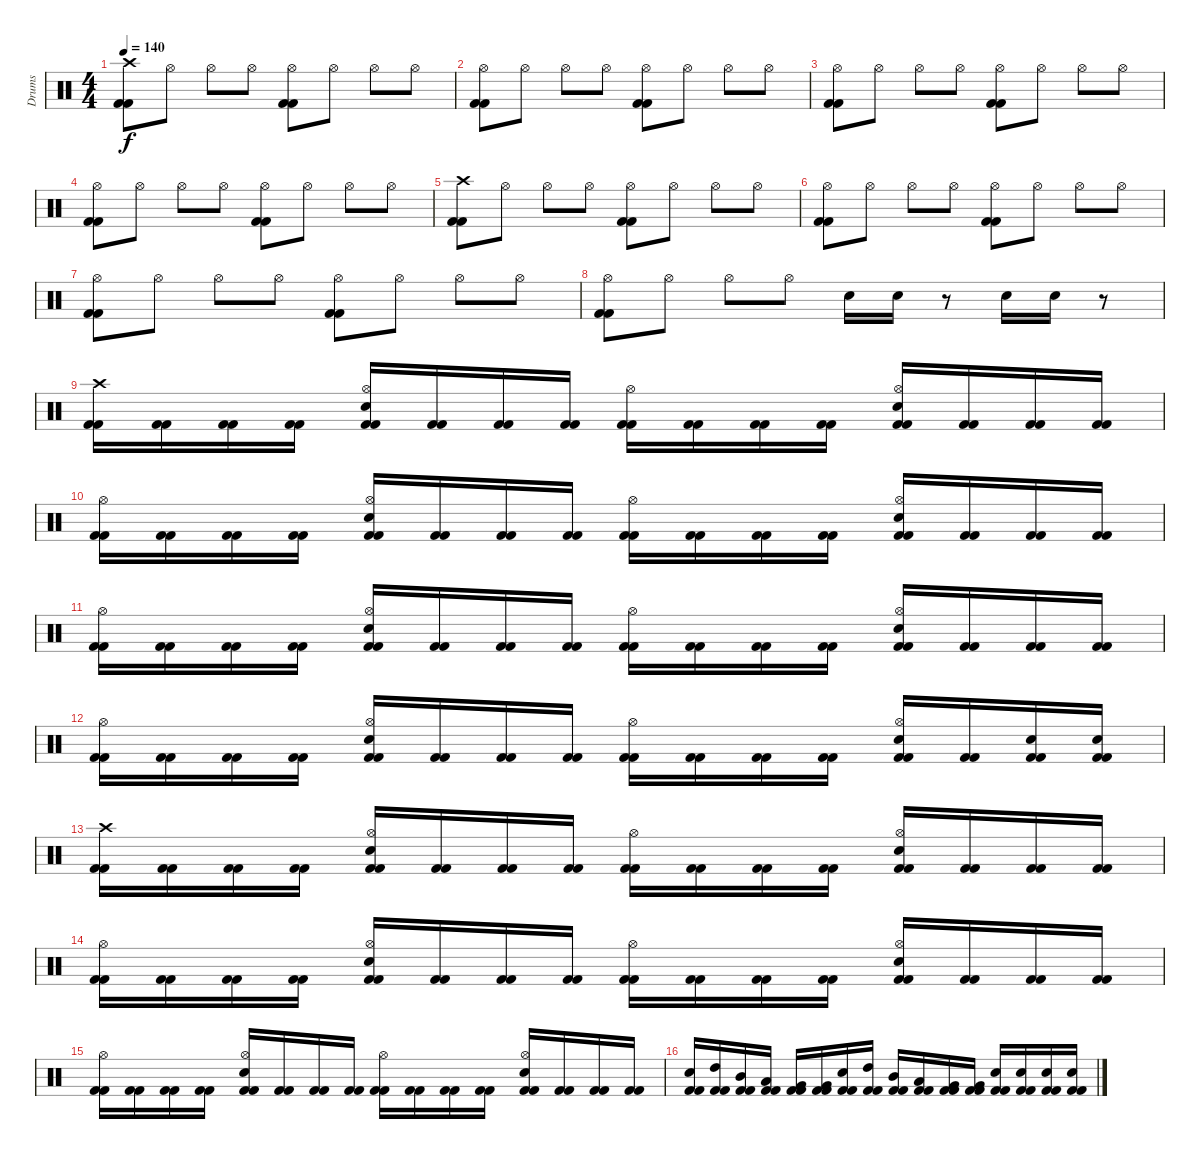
\track ("Drums" "Drums") {instrument percussion}
\staff {score}
\articulation defaults
\ts (4 4)
\tempo 140
\clef neutral
\ks c
("Crash high (hit)" "Kick (hit) 2" "Kick (hit) 2").8{dy f} "Hi-Hat (open)".8 "Hi-Hat (open)".8 "Hi-Hat (open)".8 ("Hi-Hat (open)" "Kick (hit) 2" "Kick (hit) 2").8 "Hi-Hat (open)".8 "Hi-Hat (open)".8 "Hi-Hat (open)".8 |
("Hi-Hat (open)" "Kick (hit) 2" "Kick (hit) 2").8 "Hi-Hat (open)".8 "Hi-Hat (open)".8 "Hi-Hat (open)".8 ("Hi-Hat (open)" "Kick (hit) 2" "Kick (hit) 2").8 "Hi-Hat (open)".8 "Hi-Hat (open)".8 "Hi-Hat (open)".8 |
("Hi-Hat (open)" "Kick (hit) 2" "Kick (hit) 2").8 "Hi-Hat (open)".8 "Hi-Hat (open)".8 "Hi-Hat (open)".8 ("Hi-Hat (open)" "Kick (hit) 2" "Kick (hit) 2").8 "Hi-Hat (open)".8 "Hi-Hat (open)".8 "Hi-Hat (open)".8 |
("Hi-Hat (open)" "Kick (hit) 2" "Kick (hit) 2").8 "Hi-Hat (open)".8 "Hi-Hat (open)".8 "Hi-Hat (open)".8 ("Hi-Hat (open)" "Kick (hit) 2" "Kick (hit) 2").8 "Hi-Hat (open)".8 "Hi-Hat (open)".8 "Hi-Hat (open)".8 |
("Crash high (hit)" "Kick (hit) 2" "Kick (hit) 2").8 "Hi-Hat (open)".8 "Hi-Hat (open)".8 "Hi-Hat (open)".8 ("Hi-Hat (open)" "Kick (hit) 2" "Kick (hit) 2").8 "Hi-Hat (open)".8 "Hi-Hat (open)".8 "Hi-Hat (open)".8 |
("Hi-Hat (open)" "Kick (hit) 2" "Kick (hit) 2").8 "Hi-Hat (open)".8 "Hi-Hat (open)".8 "Hi-Hat (open)".8 ("Hi-Hat (open)" "Kick (hit) 2" "Kick (hit) 2").8 "Hi-Hat (open)".8 "Hi-Hat (open)".8 "Hi-Hat (open)".8 |
("Hi-Hat (open)" "Kick (hit) 2" "Kick (hit) 2").8 "Hi-Hat (open)".8 "Hi-Hat (open)".8 "Hi-Hat (open)".8 ("Hi-Hat (open)" "Kick (hit) 2" "Kick (hit) 2").8 "Hi-Hat (open)".8 "Hi-Hat (open)".8 "Hi-Hat (open)".8 |
("Hi-Hat (open)" "Kick (hit) 2" "Kick (hit) 2").8 "Hi-Hat (open)".8 "Hi-Hat (open)".8 "Hi-Hat (open)".8 "Electric Snare (hit)".16 "Electric Snare (hit)".16 r.8 "Electric Snare (hit)".16 "Electric Snare (hit)".16 r.8 |
("Crash high (hit)" "Kick (hit) 2" "Kick (hit) 2").16 ("Kick (hit) 2" "Kick (hit) 2").16 ("Kick (hit) 2" "Kick (hit) 2").16 ("Kick (hit) 2" "Kick (hit) 2").16 ("Hi-Hat (open)" "Electric Snare (hit)" "Kick (hit) 2" "Kick (hit) 2").16 ("Kick (hit) 2" "Kick (hit) 2").16 ("Kick (hit) 2" "Kick (hit) 2").16 ("Kick (hit) 2" "Kick (hit) 2").16 ("Hi-Hat (open)" "Kick (hit) 2" "Kick (hit) 2").16 ("Kick (hit) 2" "Kick (hit) 2").16 ("Kick (hit) 2" "Kick (hit) 2").16 ("Kick (hit) 2" "Kick (hit) 2").16 ("Hi-Hat (open)" "Electric Snare (hit)" "Kick (hit) 2" "Kick (hit) 2").16 ("Kick (hit) 2" "Kick (hit) 2").16 ("Kick (hit) 2" "Kick (hit) 2").16 ("Kick (hit) 2" "Kick (hit) 2").16 |
("Hi-Hat (open)" "Kick (hit) 2" "Kick (hit) 2").16 ("Kick (hit) 2" "Kick (hit) 2").16 ("Kick (hit) 2" "Kick (hit) 2").16 ("Kick (hit) 2" "Kick (hit) 2").16 ("Hi-Hat (open)" "Electric Snare (hit)" "Kick (hit) 2" "Kick (hit) 2").16 ("Kick (hit) 2" "Kick (hit) 2").16 ("Kick (hit) 2" "Kick (hit) 2").16 ("Kick (hit) 2" "Kick (hit) 2").16 ("Hi-Hat (open)" "Kick (hit) 2" "Kick (hit) 2").16 ("Kick (hit) 2" "Kick (hit) 2").16 ("Kick (hit) 2" "Kick (hit) 2").16 ("Kick (hit) 2" "Kick (hit) 2").16 ("Hi-Hat (open)" "Electric Snare (hit)" "Kick (hit) 2" "Kick (hit) 2").16 ("Kick (hit) 2" "Kick (hit) 2").16 ("Kick (hit) 2" "Kick (hit) 2").16 ("Kick (hit) 2" "Kick (hit) 2").16 |
("Hi-Hat (open)" "Kick (hit) 2" "Kick (hit) 2").16 ("Kick (hit) 2" "Kick (hit) 2").16 ("Kick (hit) 2" "Kick (hit) 2").16 ("Kick (hit) 2" "Kick (hit) 2").16 ("Hi-Hat (open)" "Electric Snare (hit)" "Kick (hit) 2" "Kick (hit) 2").16 ("Kick (hit) 2" "Kick (hit) 2").16 ("Kick (hit) 2" "Kick (hit) 2").16 ("Kick (hit) 2" "Kick (hit) 2").16 ("Hi-Hat (open)" "Kick (hit) 2" "Kick (hit) 2").16 ("Kick (hit) 2" "Kick (hit) 2").16 ("Kick (hit) 2" "Kick (hit) 2").16 ("Kick (hit) 2" "Kick (hit) 2").16 ("Hi-Hat (open)" "Electric Snare (hit)" "Kick (hit) 2" "Kick (hit) 2").16 ("Kick (hit) 2" "Kick (hit) 2").16 ("Kick (hit) 2" "Kick (hit) 2").16 ("Kick (hit) 2" "Kick (hit) 2").16 |
("Hi-Hat (open)" "Kick (hit) 2" "Kick (hit) 2").16 ("Kick (hit) 2" "Kick (hit) 2").16 ("Kick (hit) 2" "Kick (hit) 2").16 ("Kick (hit) 2" "Kick (hit) 2").16 ("Hi-Hat (open)" "Electric Snare (hit)" "Kick (hit) 2" "Kick (hit) 2").16 ("Kick (hit) 2" "Kick (hit) 2").16 ("Kick (hit) 2" "Kick (hit) 2").16 ("Kick (hit) 2" "Kick (hit) 2").16 ("Hi-Hat (open)" "Kick (hit) 2" "Kick (hit) 2").16 ("Kick (hit) 2" "Kick (hit) 2").16 ("Kick (hit) 2" "Kick (hit) 2").16 ("Kick (hit) 2" "Kick (hit) 2").16 ("Hi-Hat (open)" "Electric Snare (hit)" "Kick (hit) 2" "Kick (hit) 2").16 ("Kick (hit) 2" "Kick (hit) 2").16 ("Electric Snare (hit)" "Kick (hit) 2" "Kick (hit) 2").16 ("Electric Snare (hit)" "Kick (hit) 2" "Kick (hit) 2").16 |
("Crash high (hit)" "Kick (hit) 2" "Kick (hit) 2").16 ("Kick (hit) 2" "Kick (hit) 2").16 ("Kick (hit) 2" "Kick (hit) 2").16 ("Kick (hit) 2" "Kick (hit) 2").16 ("Hi-Hat (open)" "Electric Snare (hit)" "Kick (hit) 2" "Kick (hit) 2").16 ("Kick (hit) 2" "Kick (hit) 2").16 ("Kick (hit) 2" "Kick (hit) 2").16 ("Kick (hit) 2" "Kick (hit) 2").16 ("Hi-Hat (open)" "Kick (hit) 2" "Kick (hit) 2").16 ("Kick (hit) 2" "Kick (hit) 2").16 ("Kick (hit) 2" "Kick (hit) 2").16 ("Kick (hit) 2" "Kick (hit) 2").16 ("Hi-Hat (open)" "Electric Snare (hit)" "Kick (hit) 2" "Kick (hit) 2").16 ("Kick (hit) 2" "Kick (hit) 2").16 ("Kick (hit) 2" "Kick (hit) 2").16 ("Kick (hit) 2" "Kick (hit) 2").16 |
("Hi-Hat (open)" "Kick (hit) 2" "Kick (hit) 2").16 ("Kick (hit) 2" "Kick (hit) 2").16 ("Kick (hit) 2" "Kick (hit) 2").16 ("Kick (hit) 2" "Kick (hit) 2").16 ("Hi-Hat (open)" "Electric Snare (hit)" "Kick (hit) 2" "Kick (hit) 2").16 ("Kick (hit) 2" "Kick (hit) 2").16 ("Kick (hit) 2" "Kick (hit) 2").16 ("Kick (hit) 2" "Kick (hit) 2").16 ("Hi-Hat (open)" "Kick (hit) 2" "Kick (hit) 2").16 ("Kick (hit) 2" "Kick (hit) 2").16 ("Kick (hit) 2" "Kick (hit) 2").16 ("Kick (hit) 2" "Kick (hit) 2").16 ("Hi-Hat (open)" "Electric Snare (hit)" "Kick (hit) 2" "Kick (hit) 2").16 ("Kick (hit) 2" "Kick (hit) 2").16 ("Kick (hit) 2" "Kick (hit) 2").16 ("Kick (hit) 2" "Kick (hit) 2").16 |
("Hi-Hat (open)" "Kick (hit) 2" "Kick (hit) 2").16 ("Kick (hit) 2" "Kick (hit) 2").16 ("Kick (hit) 2" "Kick (hit) 2").16 ("Kick (hit) 2" "Kick (hit) 2").16 ("Hi-Hat (open)" "Electric Snare (hit)" "Kick (hit) 2" "Kick (hit) 2").16 ("Kick (hit) 2" "Kick (hit) 2").16 ("Kick (hit) 2" "Kick (hit) 2").16 ("Kick (hit) 2" "Kick (hit) 2").16 ("Hi-Hat (open)" "Kick (hit) 2" "Kick (hit) 2").16 ("Kick (hit) 2" "Kick (hit) 2").16 ("Kick (hit) 2" "Kick (hit) 2").16 ("Kick (hit) 2" "Kick (hit) 2").16 ("Hi-Hat (open)" "Electric Snare (hit)" "Kick (hit) 2" "Kick (hit) 2").16 ("Kick (hit) 2" "Kick (hit) 2").16 ("Kick (hit) 2" "Kick (hit) 2").16 ("Kick (hit) 2" "Kick (hit) 2").16 |
("Electric Snare (hit)" "Kick (hit) 2" "Kick (hit) 2").16 ("High Tom (hit)" "Kick (hit) 2" "Kick (hit) 2").16 ("Mid Tom (hit)" "Kick (hit) 2" "Kick (hit) 2").16 ("Low Tom (hit)" "Kick (hit) 2" "Kick (hit) 2").16 ("Very Low Tom (hit)" "Kick (hit) 2" "Kick (hit) 2").16 ("Very Low Tom (hit)" "Kick (hit) 2" "Kick (hit) 2").16 ("Electric Snare (hit)" "Kick (hit) 2" "Kick (hit) 2").16 ("High Tom (hit)" "Kick (hit) 2" "Kick (hit) 2").16 ("Mid Tom (hit)" "Kick (hit) 2" "Kick (hit) 2").16 ("Low Tom (hit)" "Kick (hit) 2" "Kick (hit) 2").16 ("Very Low Tom (hit)" "Kick (hit) 2" "Kick (hit) 2").16 ("Very Low Tom (hit)" "Kick (hit) 2" "Kick (hit) 2").16 ("Electric Snare (hit)" "Kick (hit) 2" "Kick (hit) 2").16 ("Electric Snare (hit)" "Kick (hit) 2" "Kick (hit) 2").16 ("Electric Snare (hit)" "Kick (hit) 2" "Kick (hit) 2").16 ("Electric Snare (hit)" "Kick (hit) 2" "Kick (hit) 2").16
